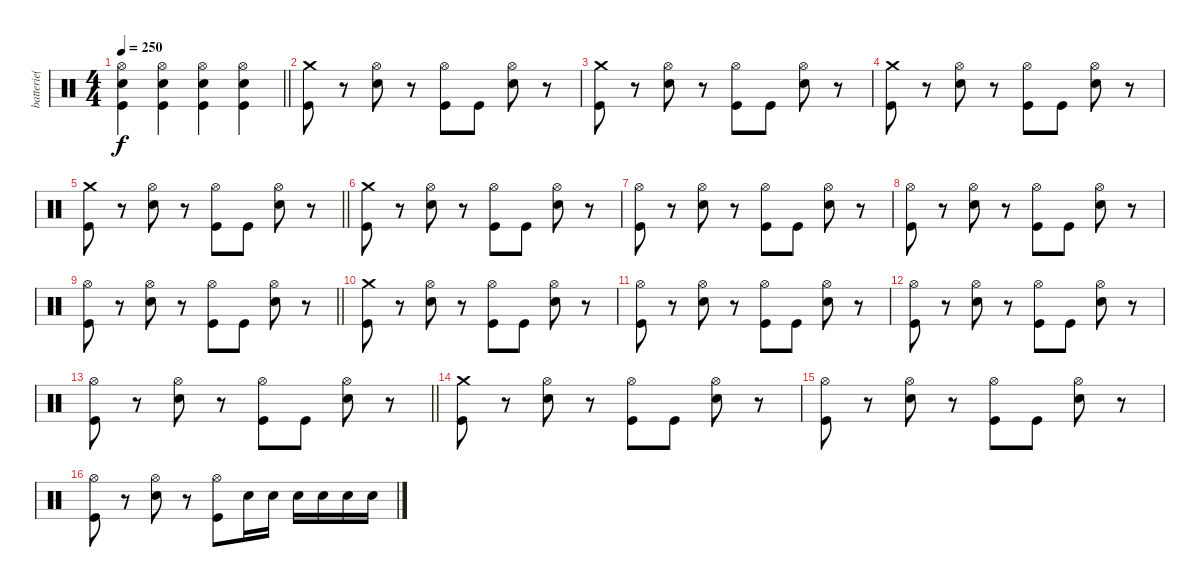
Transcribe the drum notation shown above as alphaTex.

\track ("batterie( Yureesh )" "batterie( ") {instrument percussion}
\staff {score}
\articulation defaults
\ts (4 4)
\tempo 250
\clef neutral
\barLineRight lightlight
\ks c
("Hi-Hat (open)" "Snare (hit) 2" "Kick (hit)").4{dy f} ("Hi-Hat (open)" "Snare (hit) 2" "Kick (hit)").4 ("Hi-Hat (open)" "Snare (hit) 2" "Kick (hit)").4 ("Hi-Hat (open)" "Snare (hit) 2" "Kick (hit)").4 |
("Crash medium (hit)" "Kick (hit)").8 r.8 ("Hi-Hat (open)" "Snare (hit) 2").8 r.8 ("Hi-Hat (open)" "Kick (hit)").8 "Kick (hit)".8 ("Hi-Hat (open)" "Snare (hit) 2").8 r.8 |
("Crash medium (hit)" "Kick (hit)").8 r.8 ("Hi-Hat (open)" "Snare (hit) 2").8 r.8 ("Hi-Hat (open)" "Kick (hit)").8 "Kick (hit)".8 ("Hi-Hat (open)" "Snare (hit) 2").8 r.8 |
("Crash medium (hit)" "Kick (hit)").8 r.8 ("Hi-Hat (open)" "Snare (hit) 2").8 r.8 ("Hi-Hat (open)" "Kick (hit)").8 "Kick (hit)".8 ("Hi-Hat (open)" "Snare (hit) 2").8 r.8 |
\barLineRight lightlight
("Crash medium (hit)" "Kick (hit)").8 r.8 ("Hi-Hat (open)" "Snare (hit) 2").8 r.8 ("Hi-Hat (open)" "Kick (hit)").8 "Kick (hit)".8 ("Hi-Hat (open)" "Snare (hit) 2").8 r.8 |
("Crash medium (hit)" "Kick (hit)").8 r.8 ("Hi-Hat (open)" "Snare (hit) 2").8 r.8 ("Hi-Hat (open)" "Kick (hit)").8 "Kick (hit)".8 ("Hi-Hat (open)" "Snare (hit) 2").8 r.8 |
("Hi-Hat (open)" "Kick (hit)").8 r.8 ("Hi-Hat (open)" "Snare (hit) 2").8 r.8 ("Hi-Hat (open)" "Kick (hit)").8 "Kick (hit)".8 ("Hi-Hat (open)" "Snare (hit) 2").8 r.8 |
("Hi-Hat (open)" "Kick (hit)").8 r.8 ("Hi-Hat (open)" "Snare (hit) 2").8 r.8 ("Hi-Hat (open)" "Kick (hit)").8 "Kick (hit)".8 ("Hi-Hat (open)" "Snare (hit) 2").8 r.8 |
\barLineRight lightlight
("Hi-Hat (open)" "Kick (hit)").8 r.8 ("Hi-Hat (open)" "Snare (hit) 2").8 r.8 ("Hi-Hat (open)" "Kick (hit)").8 "Kick (hit)".8 ("Hi-Hat (open)" "Snare (hit) 2").8 r.8 |
("Crash medium (hit)" "Kick (hit)").8 r.8 ("Hi-Hat (open)" "Snare (hit) 2").8 r.8 ("Hi-Hat (open)" "Kick (hit)").8 "Kick (hit)".8 ("Hi-Hat (open)" "Snare (hit) 2").8 r.8 |
("Hi-Hat (open)" "Kick (hit)").8 r.8 ("Hi-Hat (open)" "Snare (hit) 2").8 r.8 ("Hi-Hat (open)" "Kick (hit)").8 "Kick (hit)".8 ("Hi-Hat (open)" "Snare (hit) 2").8 r.8 |
("Hi-Hat (open)" "Kick (hit)").8 r.8 ("Hi-Hat (open)" "Snare (hit) 2").8 r.8 ("Hi-Hat (open)" "Kick (hit)").8 "Kick (hit)".8 ("Hi-Hat (open)" "Snare (hit) 2").8 r.8 |
\barLineRight lightlight
("Hi-Hat (open)" "Kick (hit)").8 r.8 ("Hi-Hat (open)" "Snare (hit) 2").8 r.8 ("Hi-Hat (open)" "Kick (hit)").8 "Kick (hit)".8 ("Hi-Hat (open)" "Snare (hit) 2").8 r.8 |
("Crash medium (hit)" "Kick (hit)").8 r.8 ("Hi-Hat (open)" "Snare (hit) 2").8 r.8 ("Hi-Hat (open)" "Kick (hit)").8 "Kick (hit)".8 ("Hi-Hat (open)" "Snare (hit) 2").8 r.8 |
("Hi-Hat (open)" "Kick (hit)").8 r.8 ("Hi-Hat (open)" "Snare (hit) 2").8 r.8 ("Hi-Hat (open)" "Kick (hit)").8 "Kick (hit)".8 ("Hi-Hat (open)" "Snare (hit) 2").8 r.8 |
("Hi-Hat (open)" "Kick (hit)").8 r.8 ("Hi-Hat (open)" "Snare (hit) 2").8 r.8 ("Hi-Hat (open)" "Kick (hit)").8 "Snare (hit) 2".16 "Snare (hit) 2".16 "Snare (hit) 2".16 "Snare (hit) 2".16 "Snare (hit) 2".16 "Snare (hit) 2".16
